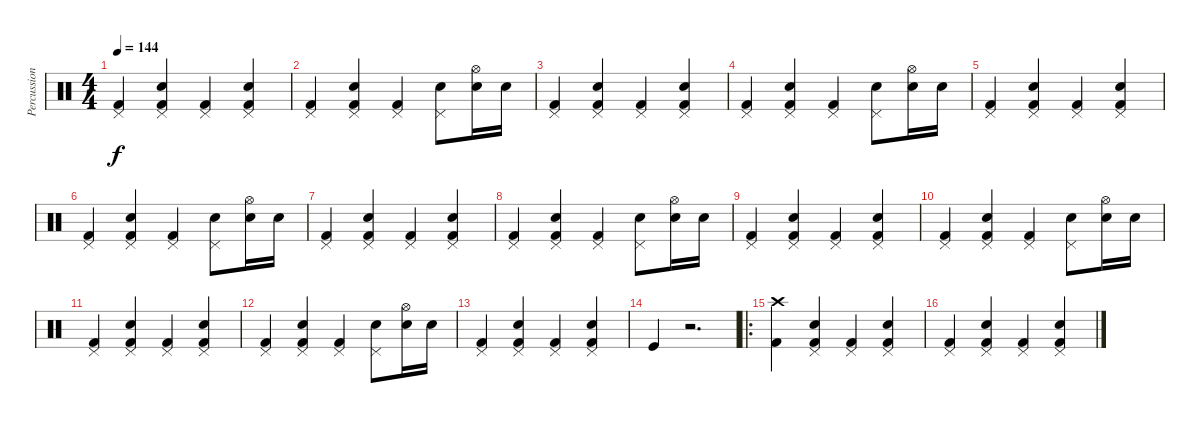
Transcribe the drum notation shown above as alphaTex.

\track ("Percussion" "Percussion") {instrument percussion}
\staff {score}
\articulation defaults
\ts (4 4)
\tempo 144
\clef neutral
\ks c
("Pedal Hi-Hat (hit)" "Kick (hit) 2").4{dy f} ("Pedal Hi-Hat (hit)" "Electric Snare (hit)" "Kick (hit) 2").4 ("Pedal Hi-Hat (hit)" "Kick (hit) 2").4 ("Pedal Hi-Hat (hit)" "Electric Snare (hit)" "Kick (hit) 2").4 |
("Pedal Hi-Hat (hit)" "Kick (hit) 2").4 ("Pedal Hi-Hat (hit)" "Electric Snare (hit)" "Kick (hit) 2").4 ("Pedal Hi-Hat (hit)" "Kick (hit) 2").4 ("Pedal Hi-Hat (hit)" "Electric Snare (hit)").8 ("Hi-Hat (open)" "Electric Snare (hit)").16 "Electric Snare (hit)".16 |
("Pedal Hi-Hat (hit)" "Kick (hit) 2").4 ("Pedal Hi-Hat (hit)" "Electric Snare (hit)" "Kick (hit) 2").4 ("Pedal Hi-Hat (hit)" "Kick (hit) 2").4 ("Pedal Hi-Hat (hit)" "Electric Snare (hit)" "Kick (hit) 2").4 |
("Pedal Hi-Hat (hit)" "Kick (hit) 2").4 ("Pedal Hi-Hat (hit)" "Electric Snare (hit)" "Kick (hit) 2").4 ("Pedal Hi-Hat (hit)" "Kick (hit) 2").4 ("Pedal Hi-Hat (hit)" "Electric Snare (hit)").8 ("Hi-Hat (open)" "Electric Snare (hit)").16 "Electric Snare (hit)".16 |
("Pedal Hi-Hat (hit)" "Kick (hit) 2").4 ("Pedal Hi-Hat (hit)" "Electric Snare (hit)" "Kick (hit) 2").4 ("Pedal Hi-Hat (hit)" "Kick (hit) 2").4 ("Pedal Hi-Hat (hit)" "Electric Snare (hit)" "Kick (hit) 2").4 |
("Pedal Hi-Hat (hit)" "Kick (hit) 2").4 ("Pedal Hi-Hat (hit)" "Electric Snare (hit)" "Kick (hit) 2").4 ("Pedal Hi-Hat (hit)" "Kick (hit) 2").4 ("Pedal Hi-Hat (hit)" "Electric Snare (hit)").8 ("Hi-Hat (open)" "Electric Snare (hit)").16 "Electric Snare (hit)".16 |
("Pedal Hi-Hat (hit)" "Kick (hit) 2").4 ("Pedal Hi-Hat (hit)" "Electric Snare (hit)" "Kick (hit) 2").4 ("Pedal Hi-Hat (hit)" "Kick (hit) 2").4 ("Pedal Hi-Hat (hit)" "Electric Snare (hit)" "Kick (hit) 2").4 |
("Pedal Hi-Hat (hit)" "Kick (hit) 2").4 ("Pedal Hi-Hat (hit)" "Electric Snare (hit)" "Kick (hit) 2").4 ("Pedal Hi-Hat (hit)" "Kick (hit) 2").4 ("Pedal Hi-Hat (hit)" "Electric Snare (hit)").8 ("Hi-Hat (open)" "Electric Snare (hit)").16 "Electric Snare (hit)".16 |
("Pedal Hi-Hat (hit)" "Kick (hit) 2").4 ("Pedal Hi-Hat (hit)" "Electric Snare (hit)" "Kick (hit) 2").4 ("Pedal Hi-Hat (hit)" "Kick (hit) 2").4 ("Pedal Hi-Hat (hit)" "Electric Snare (hit)" "Kick (hit) 2").4 |
("Pedal Hi-Hat (hit)" "Kick (hit) 2").4 ("Pedal Hi-Hat (hit)" "Electric Snare (hit)" "Kick (hit) 2").4 ("Pedal Hi-Hat (hit)" "Kick (hit) 2").4 ("Pedal Hi-Hat (hit)" "Electric Snare (hit)").8 ("Hi-Hat (open)" "Electric Snare (hit)").16 "Electric Snare (hit)".16 |
("Pedal Hi-Hat (hit)" "Kick (hit) 2").4 ("Pedal Hi-Hat (hit)" "Electric Snare (hit)" "Kick (hit) 2").4 ("Pedal Hi-Hat (hit)" "Kick (hit) 2").4 ("Pedal Hi-Hat (hit)" "Electric Snare (hit)" "Kick (hit) 2").4 |
("Pedal Hi-Hat (hit)" "Kick (hit) 2").4 ("Pedal Hi-Hat (hit)" "Electric Snare (hit)" "Kick (hit) 2").4 ("Pedal Hi-Hat (hit)" "Kick (hit) 2").4 ("Pedal Hi-Hat (hit)" "Electric Snare (hit)").8 ("Hi-Hat (open)" "Electric Snare (hit)").16 "Electric Snare (hit)".16 |
("Pedal Hi-Hat (hit)" "Kick (hit) 2").4 ("Pedal Hi-Hat (hit)" "Electric Snare (hit)" "Kick (hit) 2").4 ("Pedal Hi-Hat (hit)" "Kick (hit) 2").4 ("Pedal Hi-Hat (hit)" "Electric Snare (hit)" "Kick (hit) 2").4 |
"Kick (hit)".4 r.2{d} |
\ro
("Crash high (hit)" "Kick (hit) 2").4 ("Pedal Hi-Hat (hit)" "Electric Snare (hit)" "Kick (hit) 2").4 ("Pedal Hi-Hat (hit)" "Kick (hit) 2").4 ("Pedal Hi-Hat (hit)" "Electric Snare (hit)" "Kick (hit) 2").4 |
("Pedal Hi-Hat (hit)" "Kick (hit) 2").4 ("Pedal Hi-Hat (hit)" "Electric Snare (hit)" "Kick (hit) 2").4 ("Pedal Hi-Hat (hit)" "Kick (hit) 2").4 ("Pedal Hi-Hat (hit)" "Electric Snare (hit)" "Kick (hit) 2").4
